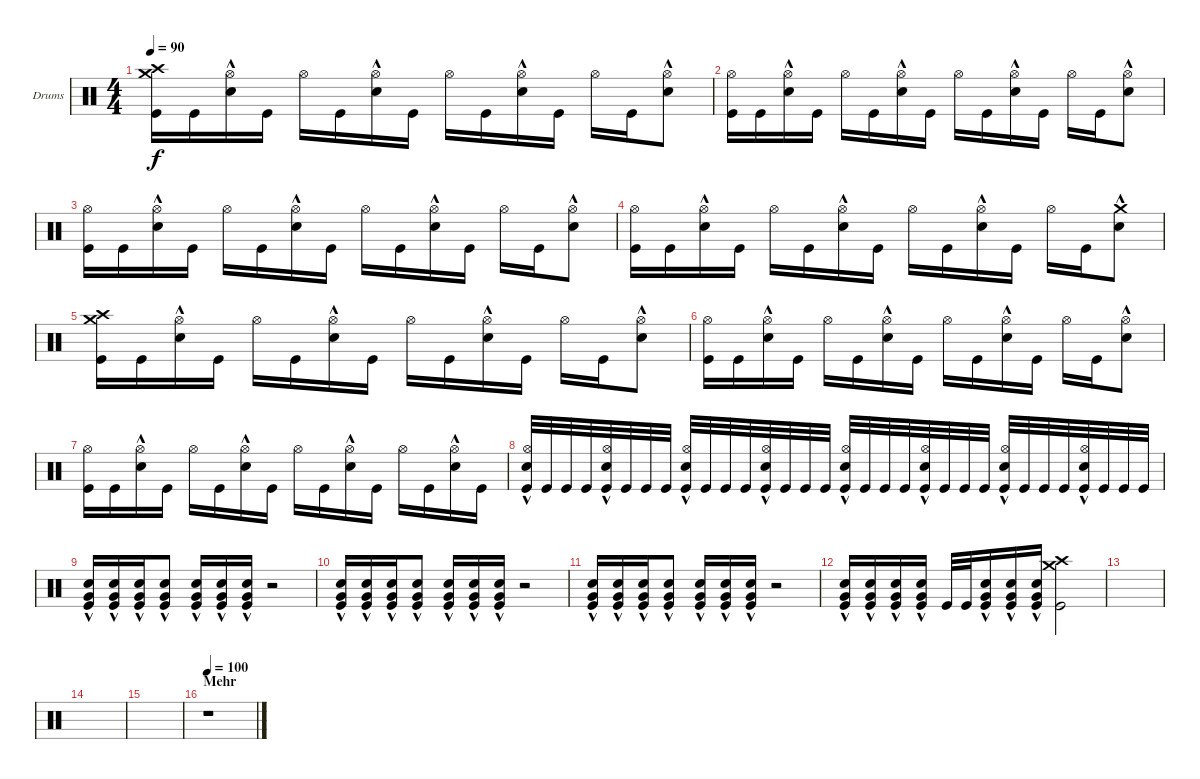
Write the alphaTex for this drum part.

\bracketExtendMode groupsimilarinstruments
\firstSystemTrackNameOrientation horizontal
\otherSystemsTrackNameOrientation horizontal
\track ("Drumkit (Christoph)" "Drums") {instrument percussion}
\staff {score}
\articulation defaults
\ts (4 4)
\tempo 90
\clef neutral
\ks c
("Crash medium (hit)" "Kick (hit)" "Crash high (hit)").16{dy f} "Kick (hit)".16 ("Hi-Hat (open)" "Snare (hit) 2"{hac}).16 "Kick (hit)".16 "Hi-Hat (open)".16 "Kick (hit)".16 ("Hi-Hat (open)" "Snare (hit) 2"{hac}).16 "Kick (hit)".16 "Hi-Hat (open)".16 "Kick (hit)".16 ("Hi-Hat (open)" "Snare (hit) 2"{hac}).16 "Kick (hit)".16 "Hi-Hat (open)".16 "Kick (hit)".16 ("Hi-Hat (open)" "Snare (hit) 2"{hac}).8 |
("Hi-Hat (open)" "Kick (hit)").16 "Kick (hit)".16 ("Hi-Hat (open)" "Snare (hit) 2"{hac}).16 "Kick (hit)".16 "Hi-Hat (open)".16 "Kick (hit)".16 ("Hi-Hat (open)" "Snare (hit) 2"{hac}).16 "Kick (hit)".16 "Hi-Hat (open)".16 "Kick (hit)".16 ("Hi-Hat (open)" "Snare (hit) 2"{hac}).16 "Kick (hit)".16 "Hi-Hat (open)".16 "Kick (hit)".16 ("Hi-Hat (open)" "Snare (hit) 2"{hac}).8 |
("Hi-Hat (open)" "Kick (hit)").16 "Kick (hit)".16 ("Hi-Hat (open)" "Snare (hit) 2"{hac}).16 "Kick (hit)".16 "Hi-Hat (open)".16 "Kick (hit)".16 ("Hi-Hat (open)" "Snare (hit) 2"{hac}).16 "Kick (hit)".16 "Hi-Hat (open)".16 "Kick (hit)".16 ("Hi-Hat (open)" "Snare (hit) 2"{hac}).16 "Kick (hit)".16 "Hi-Hat (open)".16 "Kick (hit)".16 ("Hi-Hat (open)" "Snare (hit) 2"{hac}).8 |
("Hi-Hat (open)" "Kick (hit)").16 "Kick (hit)".16 ("Hi-Hat (open)" "Snare (hit) 2"{hac}).16 "Kick (hit)".16 "Hi-Hat (open)".16 "Kick (hit)".16 ("Hi-Hat (open)" "Snare (hit) 2"{hac}).16 "Kick (hit)".16 "Hi-Hat (open)".16 "Kick (hit)".16 ("Hi-Hat (open)" "Snare (hit) 2"{hac}).16 "Kick (hit)".16 "Hi-Hat (open)".16 "Kick (hit)".16 ("Crash medium (hit)" "Snare (hit) 2"{hac}).8 |
("Crash medium (hit)" "Kick (hit)" "Crash high (hit)").16 "Kick (hit)".16 ("Hi-Hat (open)" "Snare (hit) 2"{hac}).16 "Kick (hit)".16 "Hi-Hat (open)".16 "Kick (hit)".16 ("Hi-Hat (open)" "Snare (hit) 2"{hac}).16 "Kick (hit)".16 "Hi-Hat (open)".16 "Kick (hit)".16 ("Hi-Hat (open)" "Snare (hit) 2"{hac}).16 "Kick (hit)".16 "Hi-Hat (open)".16 "Kick (hit)".16 ("Hi-Hat (open)" "Snare (hit) 2"{hac}).8 |
("Hi-Hat (open)" "Kick (hit)").16 "Kick (hit)".16 ("Hi-Hat (open)" "Snare (hit) 2"{hac}).16 "Kick (hit)".16 "Hi-Hat (open)".16 "Kick (hit)".16 ("Hi-Hat (open)" "Snare (hit) 2"{hac}).16 "Kick (hit)".16 "Hi-Hat (open)".16 "Kick (hit)".16 ("Hi-Hat (open)" "Snare (hit) 2"{hac}).16 "Kick (hit)".16 "Hi-Hat (open)".16 "Kick (hit)".16 ("Hi-Hat (open)" "Snare (hit) 2"{hac}).8 |
("Hi-Hat (open)" "Kick (hit)").16 "Kick (hit)".16 ("Hi-Hat (open)" "Snare (hit) 2"{hac}).16 "Kick (hit)".16 "Hi-Hat (open)".16 "Kick (hit)".16 ("Hi-Hat (open)" "Snare (hit) 2"{hac}).16 "Kick (hit)".16 "Hi-Hat (open)".16 "Kick (hit)".16 ("Hi-Hat (open)" "Snare (hit) 2"{hac}).16 "Kick (hit)".16 "Hi-Hat (open)".16 "Kick (hit)".16 ("Hi-Hat (open)" "Snare (hit) 2"{hac}).16 "Kick (hit)".16 |
("Hi-Hat (open)" "Kick (hit)" "Snare (hit) 2"{hac}).32 "Kick (hit)".32 "Kick (hit)".32 "Kick (hit)".32 ("Hi-Hat (open)" "Kick (hit)" "Snare (hit) 2"{hac}).32 "Kick (hit)".32 "Kick (hit)".32 "Kick (hit)".32 ("Hi-Hat (open)" "Kick (hit)" "Snare (hit) 2"{hac}).32 "Kick (hit)".32 "Kick (hit)".32 "Kick (hit)".32 ("Hi-Hat (open)" "Kick (hit)" "Snare (hit) 2"{hac}).32 "Kick (hit)".32 "Kick (hit)".32 "Kick (hit)".32 ("Hi-Hat (open)" "Kick (hit)" "Snare (hit) 2"{hac}).32 "Kick (hit)".32 "Kick (hit)".32 "Kick (hit)".32 ("Hi-Hat (open)" "Kick (hit)" "Snare (hit) 2"{hac}).32 "Kick (hit)".32 "Kick (hit)".32 "Kick (hit)".32 ("Hi-Hat (open)" "Kick (hit)" "Snare (hit) 2"{hac}).32 "Kick (hit)".32 "Kick (hit)".32 "Kick (hit)".32 ("Hi-Hat (open)" "Kick (hit)" "Snare (hit) 2"{hac}).32 "Kick (hit)".32 "Kick (hit)".32 "Kick (hit)".32 |
("Kick (hit)" "Snare (hit) 2"{hac} "Very Low Tom (hit)"{hac}).16 ("Kick (hit)" "Snare (hit) 2"{hac} "Very Low Tom (hit)"{hac}).16 ("Kick (hit)" "Snare (hit) 2"{hac} "Very Low Tom (hit)"{hac}).16 ("Kick (hit)" "Snare (hit) 2"{hac} "Very Low Tom (hit)"{hac}).8 ("Kick (hit)" "Snare (hit) 2"{hac} "Very Low Tom (hit)"{hac}).16 ("Kick (hit)" "Snare (hit) 2"{hac} "Very Low Tom (hit)"{hac}).16 ("Kick (hit)" "Snare (hit) 2"{hac} "Very Low Tom (hit)"{hac}).16 r.2 |
("Kick (hit)" "Snare (hit) 2"{hac} "Very Low Tom (hit)"{hac}).16 ("Kick (hit)" "Snare (hit) 2"{hac} "Very Low Tom (hit)"{hac}).16 ("Kick (hit)" "Snare (hit) 2"{hac} "Very Low Tom (hit)"{hac}).16 ("Kick (hit)" "Snare (hit) 2"{hac} "Very Low Tom (hit)"{hac}).8 ("Kick (hit)" "Snare (hit) 2"{hac} "Very Low Tom (hit)"{hac}).16 ("Kick (hit)" "Snare (hit) 2"{hac} "Very Low Tom (hit)"{hac}).16 ("Kick (hit)" "Snare (hit) 2"{hac} "Very Low Tom (hit)"{hac}).16 r.2 |
("Kick (hit)" "Snare (hit) 2"{hac} "Very Low Tom (hit)"{hac}).16 ("Kick (hit)" "Snare (hit) 2"{hac} "Very Low Tom (hit)"{hac}).16 ("Kick (hit)" "Snare (hit) 2"{hac} "Very Low Tom (hit)"{hac}).16 ("Kick (hit)" "Snare (hit) 2"{hac} "Very Low Tom (hit)"{hac}).8 ("Kick (hit)" "Snare (hit) 2"{hac} "Very Low Tom (hit)"{hac}).16 ("Kick (hit)" "Snare (hit) 2"{hac} "Very Low Tom (hit)"{hac}).16 ("Kick (hit)" "Snare (hit) 2"{hac} "Very Low Tom (hit)"{hac}).16 r.2 |
("Kick (hit)" "Snare (hit) 2"{hac} "Very Low Tom (hit)"{hac}).16 ("Kick (hit)" "Snare (hit) 2"{hac} "Very Low Tom (hit)"{hac}).16 ("Kick (hit)" "Snare (hit) 2"{hac} "Very Low Tom (hit)"{hac}).16 ("Kick (hit)" "Snare (hit) 2"{hac} "Very Low Tom (hit)"{hac}).16 "Kick (hit)".32 "Kick (hit)".32 ("Kick (hit)" "Snare (hit) 2"{hac} "Very Low Tom (hit)"{hac}).16 ("Kick (hit)" "Snare (hit) 2"{hac} "Very Low Tom (hit)"{hac}).16 ("Kick (hit)" "Snare (hit) 2"{hac} "Very Low Tom (hit)"{hac}).16 ("Crash medium (hit)" "Kick (hit)" "Crash high (hit)").2 |
|
|
|
\section ("" "Mehr")
\tempo 100
r.1
